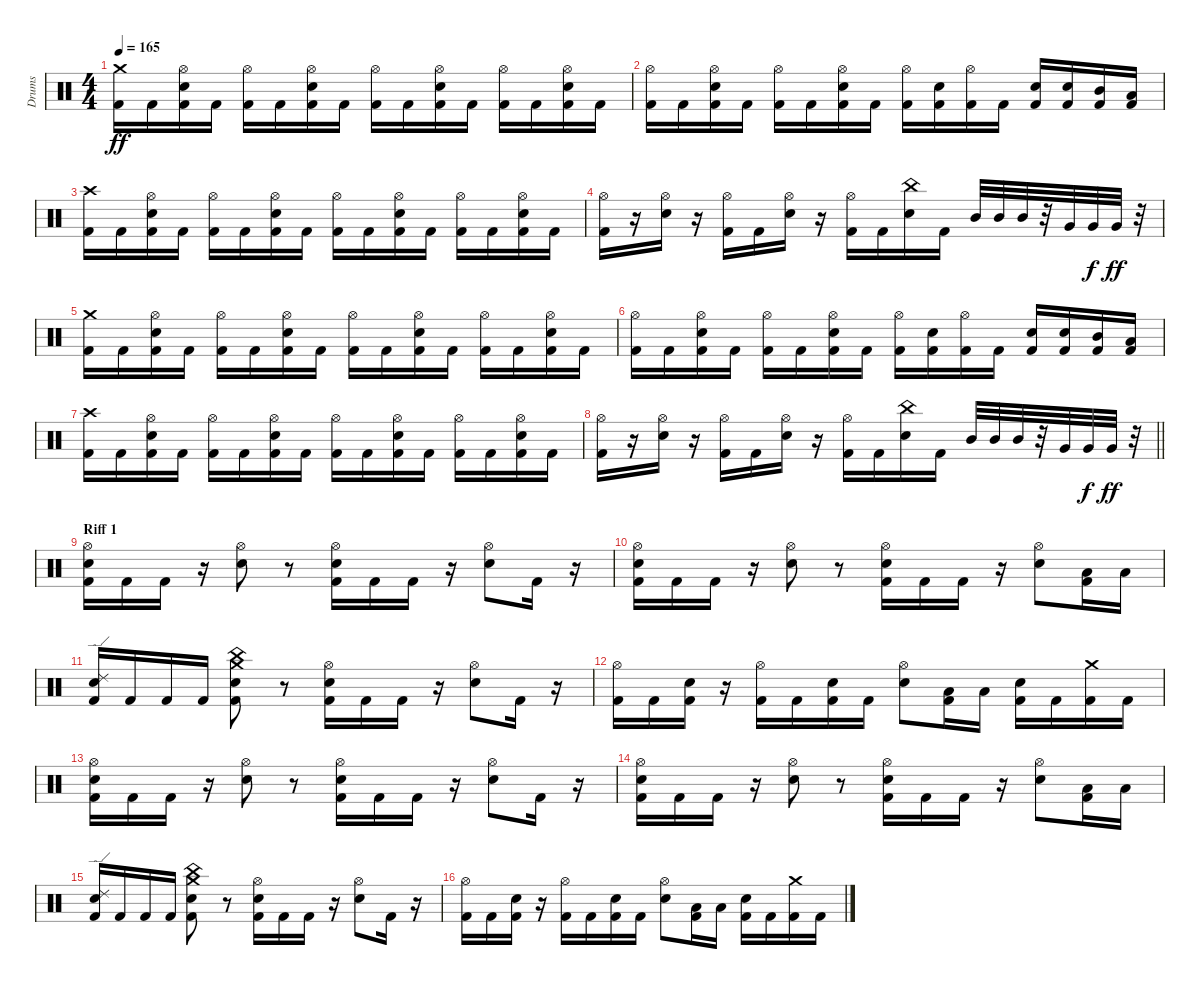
\track ("Drums" "Drums") {instrument percussion}
\staff {score}
\articulation defaults
\ts (4 4)
\tempo 165
\clef neutral
\ks c
("Kick (hit) 2" "Crash medium (hit)").16{dy ff} "Kick (hit) 2".16 ("Kick (hit) 2" "Snare (hit) 2" "Hi-Hat (open)").16 "Kick (hit) 2".16 ("Kick (hit) 2" "Hi-Hat (open)").16 "Kick (hit) 2".16 ("Kick (hit) 2" "Snare (hit) 2" "Hi-Hat (open)").16 "Kick (hit) 2".16 ("Kick (hit) 2" "Hi-Hat (open)").16 "Kick (hit) 2".16 ("Kick (hit) 2" "Snare (hit) 2" "Hi-Hat (open)").16 "Kick (hit) 2".16 ("Kick (hit) 2" "Hi-Hat (open)").16 "Kick (hit) 2".16 ("Kick (hit) 2" "Snare (hit) 2" "Hi-Hat (open)").16 "Kick (hit) 2".16 |
("Kick (hit) 2" "Hi-Hat (open)").16 "Kick (hit) 2".16 ("Kick (hit) 2" "Snare (hit) 2" "Hi-Hat (open)").16 "Kick (hit) 2".16 ("Kick (hit) 2" "Hi-Hat (open)").16 "Kick (hit) 2".16 ("Kick (hit) 2" "Snare (hit) 2" "Hi-Hat (open)").16 "Kick (hit) 2".16 ("Kick (hit) 2" "Hi-Hat (open)").16 ("Kick (hit) 2" "Snare (hit) 2").16 ("Kick (hit) 2" "Hi-Hat (open)").16 "Kick (hit) 2".16 ("Kick (hit) 2" "Snare (hit) 2").16 ("Kick (hit) 2" "Snare (hit) 2").16 ("Kick (hit) 2" "Mid Tom (hit)").16 ("Kick (hit) 2" "Low Tom (hit)").16 |
("Kick (hit) 2" "Crash high (hit)").16 "Kick (hit) 2".16 ("Kick (hit) 2" "Snare (hit) 2" "Hi-Hat (open)").16 "Kick (hit) 2".16 ("Kick (hit) 2" "Hi-Hat (open)").16 "Kick (hit) 2".16 ("Kick (hit) 2" "Snare (hit) 2" "Hi-Hat (open)").16 "Kick (hit) 2".16 ("Kick (hit) 2" "Hi-Hat (open)").16 "Kick (hit) 2".16 ("Kick (hit) 2" "Snare (hit) 2" "Hi-Hat (open)").16 "Kick (hit) 2".16 ("Kick (hit) 2" "Hi-Hat (open)").16 "Kick (hit) 2".16 ("Kick (hit) 2" "Snare (hit) 2" "Hi-Hat (open)").16 "Kick (hit) 2".16 |
("Kick (hit) 2" "Hi-Hat (open)").16 r.16 ("Snare (hit) 2" "Hi-Hat (open)").16 r.16 ("Kick (hit) 2" "Hi-Hat (open)").16 "Kick (hit) 2".16 ("Snare (hit) 2" "Hi-Hat (open)").16 r.16 ("Kick (hit) 2" "Hi-Hat (open)").16 "Kick (hit) 2".16 ("Snare (hit) 2" "China (hit)").16 "Kick (hit) 2".16 "Mid Tom (hit)".32 "Mid Tom (hit)".32 "Mid Tom (hit)".32 r.32 "Very Low Tom (hit)".32 "Very Low Tom (hit)".32{dy f} "Very Low Tom (hit)".32{dy ff} r.32 |
("Kick (hit) 2" "Crash medium (hit)").16 "Kick (hit) 2".16 ("Kick (hit) 2" "Snare (hit) 2" "Hi-Hat (open)").16 "Kick (hit) 2".16 ("Kick (hit) 2" "Hi-Hat (open)").16 "Kick (hit) 2".16 ("Kick (hit) 2" "Snare (hit) 2" "Hi-Hat (open)").16 "Kick (hit) 2".16 ("Kick (hit) 2" "Hi-Hat (open)").16 "Kick (hit) 2".16 ("Kick (hit) 2" "Snare (hit) 2" "Hi-Hat (open)").16 "Kick (hit) 2".16 ("Kick (hit) 2" "Hi-Hat (open)").16 "Kick (hit) 2".16 ("Kick (hit) 2" "Snare (hit) 2" "Hi-Hat (open)").16 "Kick (hit) 2".16 |
("Kick (hit) 2" "Hi-Hat (open)").16 "Kick (hit) 2".16 ("Kick (hit) 2" "Snare (hit) 2" "Hi-Hat (open)").16 "Kick (hit) 2".16 ("Kick (hit) 2" "Hi-Hat (open)").16 "Kick (hit) 2".16 ("Kick (hit) 2" "Snare (hit) 2" "Hi-Hat (open)").16 "Kick (hit) 2".16 ("Kick (hit) 2" "Hi-Hat (open)").16 ("Kick (hit) 2" "Snare (hit) 2").16 ("Kick (hit) 2" "Hi-Hat (open)").16 "Kick (hit) 2".16 ("Kick (hit) 2" "Snare (hit) 2").16 ("Kick (hit) 2" "Snare (hit) 2").16 ("Kick (hit) 2" "Mid Tom (hit)").16 ("Kick (hit) 2" "Low Tom (hit)").16 |
("Kick (hit) 2" "Crash high (hit)").16 "Kick (hit) 2".16 ("Kick (hit) 2" "Snare (hit) 2" "Hi-Hat (open)").16 "Kick (hit) 2".16 ("Kick (hit) 2" "Hi-Hat (open)").16 "Kick (hit) 2".16 ("Kick (hit) 2" "Snare (hit) 2" "Hi-Hat (open)").16 "Kick (hit) 2".16 ("Kick (hit) 2" "Hi-Hat (open)").16 "Kick (hit) 2".16 ("Kick (hit) 2" "Snare (hit) 2" "Hi-Hat (open)").16 "Kick (hit) 2".16 ("Kick (hit) 2" "Hi-Hat (open)").16 "Kick (hit) 2".16 ("Kick (hit) 2" "Snare (hit) 2" "Hi-Hat (open)").16 "Kick (hit) 2".16 |
\barLineRight lightlight
("Kick (hit) 2" "Hi-Hat (open)").16 r.16 ("Snare (hit) 2" "Hi-Hat (open)").16 r.16 ("Kick (hit) 2" "Hi-Hat (open)").16 "Kick (hit) 2".16 ("Snare (hit) 2" "Hi-Hat (open)").16 r.16 ("Kick (hit) 2" "Hi-Hat (open)").16 "Kick (hit) 2".16 ("Snare (hit) 2" "China (hit)").16 "Kick (hit) 2".16 "Mid Tom (hit)".32 "Mid Tom (hit)".32 "Mid Tom (hit)".32 r.32 "Very Low Tom (hit)".32 "Very Low Tom (hit)".32{dy f} "Very Low Tom (hit)".32{dy ff} r.32 |
\section ("" "Riff 1")
("Kick (hit) 2" "Snare (hit) 2" "Hi-Hat (open)").16 "Kick (hit) 2".16 "Kick (hit) 2".16 r.16 ("Snare (hit) 2" "Hi-Hat (open)").8 r.8 ("Kick (hit) 2" "Snare (hit) 2" "Hi-Hat (open)").16 "Kick (hit) 2".16 "Kick (hit) 2".16 r.16 ("Snare (hit) 2" "Hi-Hat (open)").8 "Kick (hit) 2".16 r.16 |
("Kick (hit) 2" "Snare (hit) 2" "Hi-Hat (open)").16 "Kick (hit) 2".16 "Kick (hit) 2".16 r.16 ("Snare (hit) 2" "Hi-Hat (open)").8 r.8 ("Kick (hit) 2" "Snare (hit) 2" "Hi-Hat (open)").16 "Kick (hit) 2".16 "Kick (hit) 2".16 r.16 ("Snare (hit) 2" "Hi-Hat (open)").8 ("Kick (hit) 2" "Low Tom (hit)").16 "Low Floor Tom (hit)".16 |
("Kick (hit) 2" "Snare (hit) 2" "Ride (edge) 2").16 "Kick (hit) 2".16 "Kick (hit) 2".16 "Kick (hit) 2".16 ("Kick (hit) 2" "Snare (hit) 2" "Crash medium (hit)" "China (hit)").8 r.8 ("Kick (hit) 2" "Snare (hit) 2" "Hi-Hat (open)").16 "Kick (hit) 2".16 "Kick (hit) 2".16 r.16 ("Snare (hit) 2" "Hi-Hat (open)").8 "Kick (hit) 2".16 r.16 |
("Kick (hit) 2" "Hi-Hat (open)").16 "Kick (hit) 2".16 ("Kick (hit) 2" "Snare (hit) 2").16 r.16 ("Kick (hit) 2" "Hi-Hat (open)").16 "Kick (hit) 2".16 ("Kick (hit) 2" "Snare (hit) 2").16 "Kick (hit) 2".16 ("Snare (hit) 2" "Hi-Hat (open)").8 ("Kick (hit) 2" "Low Tom (hit)").16 "Low Tom (hit)".16 ("Kick (hit) 2" "Snare (hit) 2").16 "Kick (hit) 2".16 ("Kick (hit) 2" "Crash medium (hit)").16 "Kick (hit) 2".16 |
("Kick (hit) 2" "Snare (hit) 2" "Hi-Hat (open)").16 "Kick (hit) 2".16 "Kick (hit) 2".16 r.16 ("Snare (hit) 2" "Hi-Hat (open)").8 r.8 ("Kick (hit) 2" "Snare (hit) 2" "Hi-Hat (open)").16 "Kick (hit) 2".16 "Kick (hit) 2".16 r.16 ("Snare (hit) 2" "Hi-Hat (open)").8 "Kick (hit) 2".16 r.16 |
("Kick (hit) 2" "Snare (hit) 2" "Hi-Hat (open)").16 "Kick (hit) 2".16 "Kick (hit) 2".16 r.16 ("Snare (hit) 2" "Hi-Hat (open)").8 r.8 ("Kick (hit) 2" "Snare (hit) 2" "Hi-Hat (open)").16 "Kick (hit) 2".16 "Kick (hit) 2".16 r.16 ("Snare (hit) 2" "Hi-Hat (open)").8 ("Kick (hit) 2" "Low Tom (hit)").16 "Low Floor Tom (hit)".16 |
("Kick (hit) 2" "Snare (hit) 2" "Ride (edge) 2").16 "Kick (hit) 2".16 "Kick (hit) 2".16 "Kick (hit) 2".16 ("Kick (hit) 2" "Snare (hit) 2" "Crash medium (hit)" "China (hit)").8 r.8 ("Kick (hit) 2" "Snare (hit) 2" "Hi-Hat (open)").16 "Kick (hit) 2".16 "Kick (hit) 2".16 r.16 ("Snare (hit) 2" "Hi-Hat (open)").8 "Kick (hit) 2".16 r.16 |
("Kick (hit) 2" "Hi-Hat (open)").16 "Kick (hit) 2".16 ("Kick (hit) 2" "Snare (hit) 2").16 r.16 ("Kick (hit) 2" "Hi-Hat (open)").16 "Kick (hit) 2".16 ("Kick (hit) 2" "Snare (hit) 2").16 "Kick (hit) 2".16 ("Snare (hit) 2" "Hi-Hat (open)").8 ("Kick (hit) 2" "Low Tom (hit)").16 "Low Tom (hit)".16 ("Kick (hit) 2" "Snare (hit) 2").16 "Kick (hit) 2".16 ("Kick (hit) 2" "Crash medium (hit)").16 "Kick (hit) 2".16
